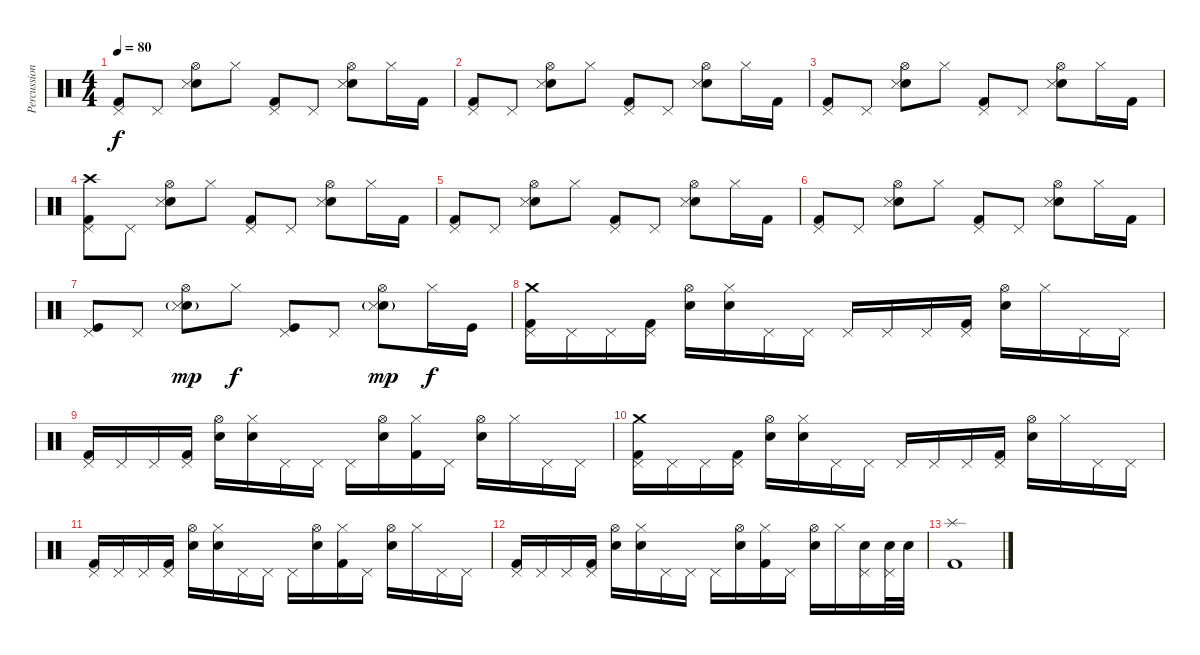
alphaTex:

\track ("Percussions" "Percussion") {instrument percussion}
\staff {score}
\articulation defaults
\ts (4 4)
\tempo 80
\clef neutral
\ks c
("Pedal Hi-Hat (hit)" "Kick (hit) 2").8{dy f} "Pedal Hi-Hat (hit)".8 ("Hi-Hat (open)" "Electric Snare (hit)" "Snare (side stick) 3").8 "Hi-Hat (closed)".8 ("Pedal Hi-Hat (hit)" "Kick (hit) 2").8 "Pedal Hi-Hat (hit)".8 ("Hi-Hat (open)" "Electric Snare (hit)" "Snare (side stick) 3").8 "Hi-Hat (closed)".16 "Kick (hit) 2".16 |
("Pedal Hi-Hat (hit)" "Kick (hit) 2").8 "Pedal Hi-Hat (hit)".8 ("Hi-Hat (open)" "Electric Snare (hit)" "Snare (side stick) 3").8 "Hi-Hat (closed)".8 ("Pedal Hi-Hat (hit)" "Kick (hit) 2").8 "Pedal Hi-Hat (hit)".8 ("Hi-Hat (open)" "Electric Snare (hit)" "Snare (side stick) 3").8 "Hi-Hat (closed)".16 "Kick (hit) 2".16 |
("Pedal Hi-Hat (hit)" "Kick (hit) 2").8 "Pedal Hi-Hat (hit)".8 ("Hi-Hat (open)" "Electric Snare (hit)" "Snare (side stick) 3").8 "Hi-Hat (closed)".8 ("Pedal Hi-Hat (hit)" "Kick (hit) 2").8 "Pedal Hi-Hat (hit)".8 ("Hi-Hat (open)" "Electric Snare (hit)" "Snare (side stick) 3").8 "Hi-Hat (closed)".16 "Kick (hit) 2".16 |
("Pedal Hi-Hat (hit)" "Crash high (hit)" "Kick (hit) 2").8 "Pedal Hi-Hat (hit)".8 ("Hi-Hat (open)" "Electric Snare (hit)" "Snare (side stick) 3").8 "Hi-Hat (closed)".8 ("Pedal Hi-Hat (hit)" "Kick (hit) 2").8 "Pedal Hi-Hat (hit)".8 ("Hi-Hat (open)" "Electric Snare (hit)" "Snare (side stick) 3").8 "Hi-Hat (closed)".16 "Kick (hit) 2".16 |
("Pedal Hi-Hat (hit)" "Kick (hit) 2").8 "Pedal Hi-Hat (hit)".8 ("Hi-Hat (open)" "Electric Snare (hit)" "Snare (side stick) 3").8 "Hi-Hat (closed)".8 ("Pedal Hi-Hat (hit)" "Kick (hit) 2").8 "Pedal Hi-Hat (hit)".8 ("Hi-Hat (open)" "Electric Snare (hit)" "Snare (side stick) 3").8 "Hi-Hat (closed)".16 "Kick (hit) 2".16 |
("Pedal Hi-Hat (hit)" "Kick (hit) 2").8 "Pedal Hi-Hat (hit)".8 ("Hi-Hat (open)" "Electric Snare (hit)" "Snare (side stick) 3").8 "Hi-Hat (closed)".8 ("Pedal Hi-Hat (hit)" "Kick (hit) 2").8 "Pedal Hi-Hat (hit)".8 ("Hi-Hat (open)" "Electric Snare (hit)" "Snare (side stick) 3").8 "Hi-Hat (closed)".16 "Kick (hit) 2".16 |
("Pedal Hi-Hat (hit)" "Kick (hit)").8 "Pedal Hi-Hat (hit)".8 ("Hi-Hat (open)" "Electric Snare (hit)"{g} "Snare (side stick) 3").8{dy mp} "Hi-Hat (closed)".8{dy f} ("Pedal Hi-Hat (hit)" "Kick (hit)").8 "Pedal Hi-Hat (hit)".8 ("Hi-Hat (open)" "Electric Snare (hit)"{g} "Snare (side stick) 3").8{dy mp} "Hi-Hat (closed)".16{dy f} "Kick (hit)".16 |
("Pedal Hi-Hat (hit)" "Crash medium (hit)" "Kick (hit) 2").16 "Pedal Hi-Hat (hit)".16 "Pedal Hi-Hat (hit)".16 ("Pedal Hi-Hat (hit)" "Kick (hit) 2").16 ("Hi-Hat (open)" "Electric Snare (hit)").16 ("Hi-Hat (closed)" "Electric Snare (hit)").16 "Pedal Hi-Hat (hit)".16 "Pedal Hi-Hat (hit)".16 "Pedal Hi-Hat (hit)".16 "Pedal Hi-Hat (hit)".16 "Pedal Hi-Hat (hit)".16 ("Pedal Hi-Hat (hit)" "Kick (hit) 2").16 ("Hi-Hat (open)" "Electric Snare (hit)").16 "Hi-Hat (closed)".16 "Pedal Hi-Hat (hit)".16 "Pedal Hi-Hat (hit)".16 |
("Pedal Hi-Hat (hit)" "Kick (hit) 2").16 "Pedal Hi-Hat (hit)".16 "Pedal Hi-Hat (hit)".16 ("Pedal Hi-Hat (hit)" "Kick (hit) 2").16 ("Hi-Hat (open)" "Electric Snare (hit)").16 ("Hi-Hat (closed)" "Electric Snare (hit)").16 "Pedal Hi-Hat (hit)".16 "Pedal Hi-Hat (hit)".16 "Pedal Hi-Hat (hit)".16 ("Hi-Hat (open)" "Electric Snare (hit)").16 ("Hi-Hat (closed)" "Kick (hit) 2").16 "Pedal Hi-Hat (hit)".16 ("Hi-Hat (open)" "Electric Snare (hit)").16 "Hi-Hat (closed)".16 "Pedal Hi-Hat (hit)".16 "Pedal Hi-Hat (hit)".16 |
("Pedal Hi-Hat (hit)" "Crash medium (hit)" "Kick (hit) 2").16 "Pedal Hi-Hat (hit)".16 "Pedal Hi-Hat (hit)".16 ("Pedal Hi-Hat (hit)" "Kick (hit) 2").16 ("Hi-Hat (open)" "Electric Snare (hit)").16 ("Hi-Hat (closed)" "Electric Snare (hit)").16 "Pedal Hi-Hat (hit)".16 "Pedal Hi-Hat (hit)".16 "Pedal Hi-Hat (hit)".16 "Pedal Hi-Hat (hit)".16 "Pedal Hi-Hat (hit)".16 ("Pedal Hi-Hat (hit)" "Kick (hit) 2").16 ("Hi-Hat (open)" "Electric Snare (hit)").16 "Hi-Hat (closed)".16 "Pedal Hi-Hat (hit)".16 "Pedal Hi-Hat (hit)".16 |
("Pedal Hi-Hat (hit)" "Kick (hit) 2").16 "Pedal Hi-Hat (hit)".16 "Pedal Hi-Hat (hit)".16 ("Pedal Hi-Hat (hit)" "Kick (hit) 2").16 ("Hi-Hat (open)" "Electric Snare (hit)").16 ("Hi-Hat (closed)" "Electric Snare (hit)").16 "Pedal Hi-Hat (hit)".16 "Pedal Hi-Hat (hit)".16 "Pedal Hi-Hat (hit)".16 ("Hi-Hat (open)" "Electric Snare (hit)").16 ("Hi-Hat (closed)" "Kick (hit) 2").16 "Pedal Hi-Hat (hit)".16 ("Hi-Hat (open)" "Electric Snare (hit)").16 "Hi-Hat (closed)".16 "Pedal Hi-Hat (hit)".16 "Pedal Hi-Hat (hit)".16 |
("Pedal Hi-Hat (hit)" "Kick (hit) 2").16 "Pedal Hi-Hat (hit)".16 "Pedal Hi-Hat (hit)".16 ("Pedal Hi-Hat (hit)" "Kick (hit) 2").16 ("Hi-Hat (open)" "Electric Snare (hit)").16 ("Hi-Hat (closed)" "Electric Snare (hit)").16 "Pedal Hi-Hat (hit)".16 "Pedal Hi-Hat (hit)".16 "Pedal Hi-Hat (hit)".16 ("Hi-Hat (open)" "Electric Snare (hit)").16 ("Hi-Hat (closed)" "Kick (hit) 2").16 "Pedal Hi-Hat (hit)".16 ("Hi-Hat (open)" "Electric Snare (hit)").16 "Hi-Hat (closed)".16 ("Pedal Hi-Hat (hit)" "Electric Snare (hit)").16 ("Pedal Hi-Hat (hit)" "Electric Snare (hit)").32 "Electric Snare (hit)".32 |
("Splash (hit)" "Kick (hit) 2").1
